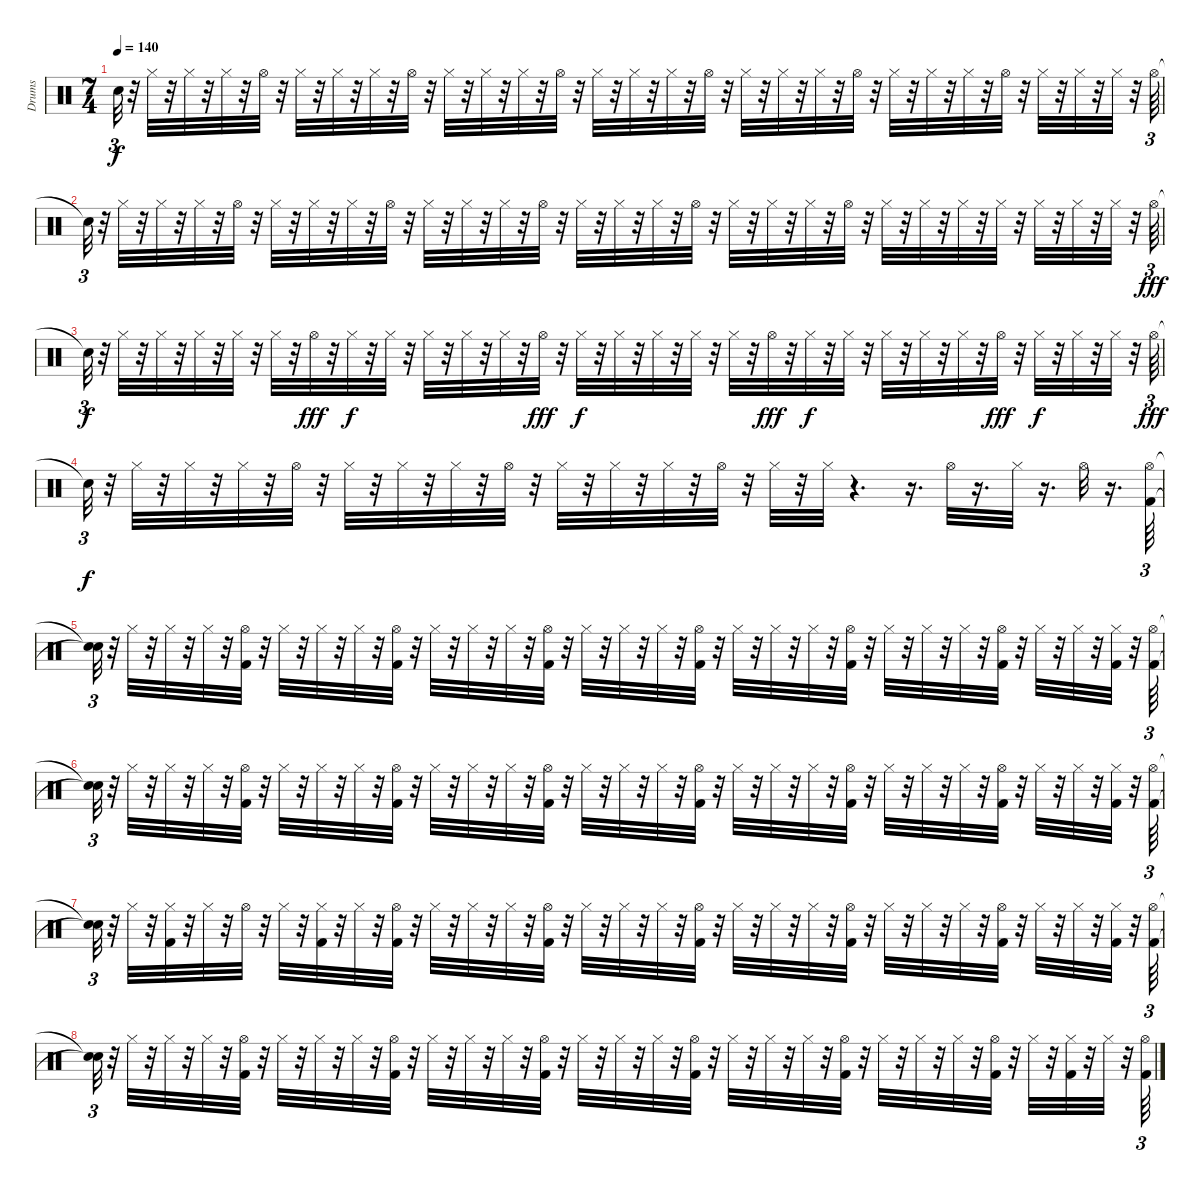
\track ("Drums" "Drums") {instrument percussion}
\staff {score}
\articulation defaults
\ts (7 4)
\tempo 140
\clef neutral
\ks c "Snare (hit)"{t}.32{tu (3 2) dy f}
r.32 "Hi-Hat (closed)".32 r.32 "Hi-Hat (closed)".32 r.32 "Hi-Hat (closed)".32 r.32 "Hi-Hat (open)".32 r.32 "Hi-Hat (closed)".32 r.32 "Hi-Hat (closed)".32 r.32 "Hi-Hat (closed)".32 r.32 "Hi-Hat (open)".32 r.32 "Hi-Hat (closed)".32 r.32 "Hi-Hat (closed)".32 r.32 "Hi-Hat (closed)".32 r.32 "Hi-Hat (open)".32 r.32 "Hi-Hat (closed)".32 r.32 "Hi-Hat (closed)".32 r.32 "Hi-Hat (closed)".32 r.32 "Hi-Hat (open)".32 r.32 "Hi-Hat (closed)".32 r.32 "Hi-Hat (closed)".32 r.32 "Hi-Hat (closed)".32 r.32 "Hi-Hat (open)".32 r.32 "Hi-Hat (closed)".32 r.32 "Hi-Hat (closed)".32 r.32 "Hi-Hat (closed)".32 r.32 "Hi-Hat (open)".32 r.32 "Hi-Hat (closed)".32 r.32 "Hi-Hat (closed)".32 r.32 "Hi-Hat (closed)".32 r.32 "Hi-Hat (open)".64{tu (3 2)} |
"Snare (hit)"{t}.32{tu (3 2)} r.32 "Hi-Hat (closed)".32 r.32 "Hi-Hat (closed)".32 r.32 "Hi-Hat (closed)".32 r.32 "Hi-Hat (open)".32 r.32 "Hi-Hat (closed)".32 r.32 "Hi-Hat (closed)".32 r.32 "Hi-Hat (closed)".32 r.32 "Hi-Hat (open)".32 r.32 "Hi-Hat (closed)".32 r.32 "Hi-Hat (closed)".32 r.32 "Hi-Hat (closed)".32 r.32 "Hi-Hat (open)".32 r.32 "Hi-Hat (closed)".32 r.32 "Hi-Hat (closed)".32 r.32 "Hi-Hat (closed)".32 r.32 "Hi-Hat (open)".32 r.32 "Hi-Hat (closed)".32 r.32 "Hi-Hat (closed)".32 r.32 "Hi-Hat (closed)".32 r.32 "Hi-Hat (open)".32 r.32 "Hi-Hat (closed)".32 r.32 "Hi-Hat (closed)".32 r.32 "Hi-Hat (closed)".32 r.32 "Hi-Hat (closed)".32 r.32 "Hi-Hat (closed)".32 r.32 "Hi-Hat (closed)".32 r.32 "Hi-Hat (closed)".32 r.32 "Hi-Hat (open)".64{tu (3 2) dy fff} |
"Snare (hit)"{t}.32{tu (3 2) dy f} r.32 "Hi-Hat (closed)".32 r.32 "Hi-Hat (closed)".32 r.32 "Hi-Hat (closed)".32 r.32 "Hi-Hat (closed)".32 r.32 "Hi-Hat (closed)".32 r.32 "Hi-Hat (open)".32{dy fff} r.32 "Hi-Hat (closed)".32{dy f} r.32 "Hi-Hat (closed)".32 r.32 "Hi-Hat (closed)".32 r.32 "Hi-Hat (closed)".32 r.32 "Hi-Hat (closed)".32 r.32 "Hi-Hat (open)".32{dy fff} r.32 "Hi-Hat (closed)".32{dy f} r.32 "Hi-Hat (closed)".32 r.32 "Hi-Hat (closed)".32 r.32 "Hi-Hat (closed)".32 r.32 "Hi-Hat (closed)".32 r.32 "Hi-Hat (open)".32{dy fff} r.32 "Hi-Hat (closed)".32{dy f} r.32 "Hi-Hat (closed)".32 r.32 "Hi-Hat (closed)".32 r.32 "Hi-Hat (closed)".32 r.32 "Hi-Hat (closed)".32 r.32 "Hi-Hat (open)".32{dy fff} r.32 "Hi-Hat (closed)".32{dy f} r.32 "Hi-Hat (closed)".32 r.32 "Hi-Hat (closed)".32 r.32 "Hi-Hat (open)".64{tu (3 2) dy fff} |
"Snare (hit)"{t}.32{tu (3 2) dy f} r.32 "Hi-Hat (closed)".32 r.32 "Hi-Hat (closed)".32 r.32 "Hi-Hat (closed)".32 r.32 "Hi-Hat (open)".32 r.32 "Hi-Hat (closed)".32 r.32 "Hi-Hat (closed)".32 r.32 "Hi-Hat (closed)".32 r.32 "Hi-Hat (open)".32 r.32 "Hi-Hat (closed)".32 r.32 "Hi-Hat (closed)".32 r.32 "Hi-Hat (closed)".32 r.32 "Hi-Hat (open)".32 r.32 "Hi-Hat (closed)".32 r.32 "Hi-Hat (closed)".32 r.4{d} r.16{d} "Hi-Hat (open)".32 r.16{d} "Hi-Hat (closed)".32 r.16{d} "Hi-Hat (open)".32 r.16{d} ("Kick (hit) 2" "Hi-Hat (open)").64{tu (3 2)} |
("Snare (hit)"{t} "Snare (hit)"{t}).32{tu (3 2)} r.32 "Hi-Hat (closed)".32 r.32 "Hi-Hat (closed)".32 r.32 "Hi-Hat (closed)".32 r.32 ("Kick (hit) 2" "Hi-Hat (open)").32 r.32 "Hi-Hat (closed)".32 r.32 "Hi-Hat (closed)".32 r.32 "Hi-Hat (closed)".32 r.32 ("Hi-Hat (open)" "Kick (hit) 2").32 r.32 "Hi-Hat (closed)".32 r.32 "Hi-Hat (closed)".32 r.32 "Hi-Hat (closed)".32 r.32 ("Kick (hit) 2" "Hi-Hat (open)").32 r.32 "Hi-Hat (closed)".32 r.32 "Hi-Hat (closed)".32 r.32 "Hi-Hat (closed)".32 r.32 ("Kick (hit) 2" "Hi-Hat (open)").32 r.32 "Hi-Hat (closed)".32 r.32 "Hi-Hat (closed)".32 r.32 "Hi-Hat (closed)".32 r.32 ("Kick (hit) 2" "Hi-Hat (open)").32 r.32 "Hi-Hat (closed)".32 r.32 "Hi-Hat (closed)".32 r.32 "Hi-Hat (closed)".32 r.32 ("Kick (hit) 2" "Hi-Hat (open)").32 r.32 "Hi-Hat (closed)".32 r.32 "Hi-Hat (closed)".32 r.32 ("Kick (hit) 2" "Hi-Hat (closed)").32 r.32 ("Kick (hit) 2" "Hi-Hat (open)").64{tu (3 2)} |
("Snare (hit)"{t} "Snare (hit)"{t}).32{tu (3 2)} r.32 "Hi-Hat (closed)".32 r.32 "Hi-Hat (closed)".32 r.32 "Hi-Hat (closed)".32 r.32 ("Kick (hit) 2" "Hi-Hat (open)").32 r.32 "Hi-Hat (closed)".32 r.32 "Hi-Hat (closed)".32 r.32 "Hi-Hat (closed)".32 r.32 ("Kick (hit) 2" "Hi-Hat (open)").32 r.32 "Hi-Hat (closed)".32 r.32 "Hi-Hat (closed)".32 r.32 "Hi-Hat (closed)".32 r.32 ("Hi-Hat (open)" "Kick (hit) 2").32 r.32 "Hi-Hat (closed)".32 r.32 "Hi-Hat (closed)".32 r.32 "Hi-Hat (closed)".32 r.32 ("Kick (hit) 2" "Hi-Hat (open)").32 r.32 "Hi-Hat (closed)".32 r.32 "Hi-Hat (closed)".32 r.32 "Hi-Hat (closed)".32 r.32 ("Kick (hit) 2" "Hi-Hat (open)").32 r.32 "Hi-Hat (closed)".32 r.32 "Hi-Hat (closed)".32 r.32 "Hi-Hat (closed)".32 r.32 ("Kick (hit) 2" "Hi-Hat (open)").32 r.32 "Hi-Hat (closed)".32 r.32 "Hi-Hat (closed)".32 r.32 ("Kick (hit) 2" "Hi-Hat (closed)").32 r.32 ("Kick (hit) 2" "Hi-Hat (open)").64{tu (3 2)} |
("Snare (hit)"{t} "Snare (hit)"{t}).32{tu (3 2)} r.32 "Hi-Hat (closed)".32 r.32 ("Kick (hit) 2" "Hi-Hat (closed)").32 r.32 "Hi-Hat (closed)".32 r.32 "Hi-Hat (open)".32 r.32 "Hi-Hat (closed)".32 r.32 ("Hi-Hat (closed)" "Kick (hit) 2").32 r.32 "Hi-Hat (closed)".32 r.32 ("Hi-Hat (open)" "Kick (hit) 2").32 r.32 "Hi-Hat (closed)".32 r.32 "Hi-Hat (closed)".32 r.32 "Hi-Hat (closed)".32 r.32 ("Hi-Hat (open)" "Kick (hit) 2").32 r.32 "Hi-Hat (closed)".32 r.32 "Hi-Hat (closed)".32 r.32 "Hi-Hat (closed)".32 r.32 ("Kick (hit) 2" "Hi-Hat (open)").32 r.32 "Hi-Hat (closed)".32 r.32 "Hi-Hat (closed)".32 r.32 "Hi-Hat (closed)".32 r.32 ("Kick (hit) 2" "Hi-Hat (open)").32 r.32 "Hi-Hat (closed)".32 r.32 "Hi-Hat (closed)".32 r.32 "Hi-Hat (closed)".32 r.32 ("Kick (hit) 2" "Hi-Hat (open)").32 r.32 "Hi-Hat (closed)".32 r.32 "Hi-Hat (closed)".32 r.32 ("Kick (hit) 2" "Hi-Hat (closed)").32 r.32 ("Kick (hit) 2" "Hi-Hat (open)").64{tu (3 2)} |
("Snare (hit)"{t} "Snare (hit)"{t}).32{tu (3 2)} r.32 "Hi-Hat (closed)".32 r.32 "Hi-Hat (closed)".32 r.32 "Hi-Hat (closed)".32 r.32 ("Hi-Hat (open)" "Kick (hit) 2").32 r.32 "Hi-Hat (closed)".32 r.32 "Hi-Hat (closed)".32 r.32 "Hi-Hat (closed)".32 r.32 ("Kick (hit) 2" "Hi-Hat (open)").32 r.32 "Hi-Hat (closed)".32 r.32 "Hi-Hat (closed)".32 r.32 "Hi-Hat (closed)".32 r.32 ("Hi-Hat (open)" "Kick (hit) 2").32 r.32 "Hi-Hat (closed)".32 r.32 "Hi-Hat (closed)".32 r.32 "Hi-Hat (closed)".32 r.32 ("Kick (hit) 2" "Hi-Hat (open)").32 r.32 "Hi-Hat (closed)".32 r.32 "Hi-Hat (closed)".32 r.32 "Hi-Hat (closed)".32 r.32 ("Kick (hit) 2" "Hi-Hat (open)").32 r.32 "Hi-Hat (closed)".32 r.32 "Hi-Hat (closed)".32 r.32 "Hi-Hat (closed)".32 r.32 ("Kick (hit) 2" "Hi-Hat (open)").32 r.32 "Hi-Hat (closed)".32 r.32 ("Kick (hit) 2" "Hi-Hat (closed)").32 r.32 "Hi-Hat (closed)".32 r.32 ("Kick (hit) 2" "Hi-Hat (open)").64{tu (3 2)}
